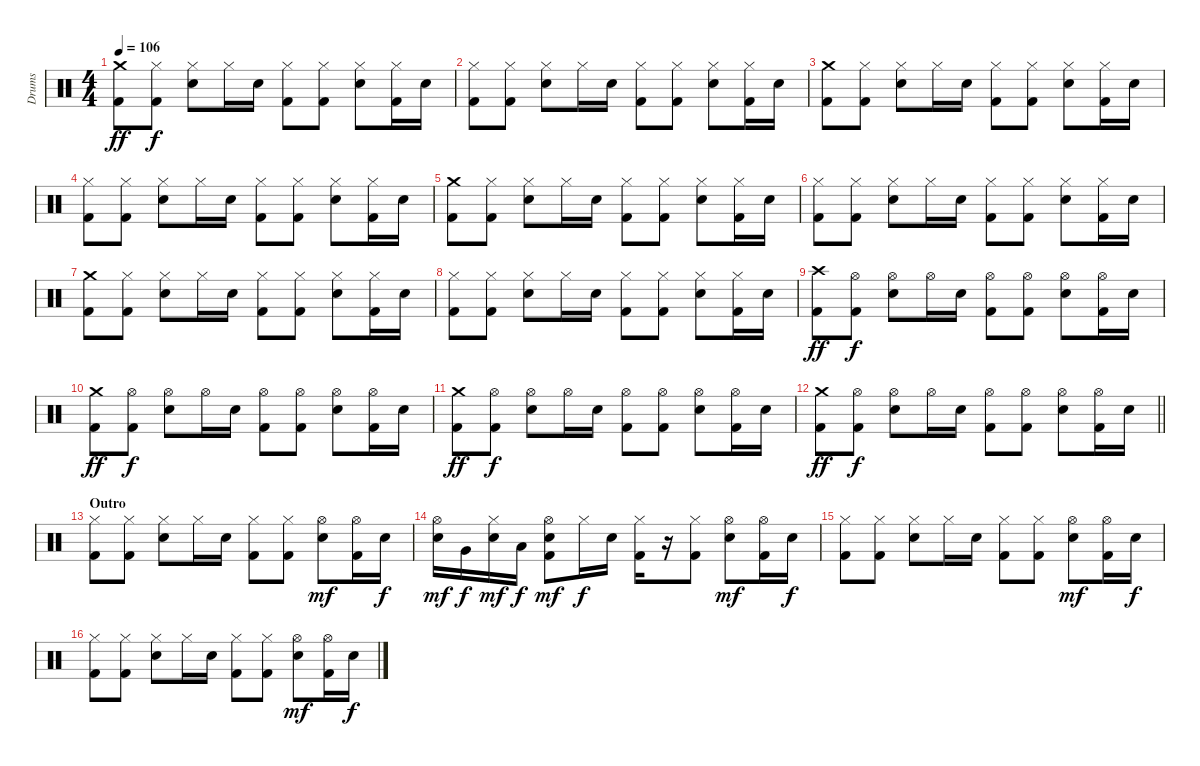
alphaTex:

\track ("Drums" "Drums") {instrument percussion}
\staff {score}
\articulation defaults
\ts (4 4)
\tempo 106
\clef neutral
\ks c
("Crash medium (hit)" "Kick (hit) 2").8{dy ff} ("Hi-Hat (closed)" "Kick (hit) 2").8{dy f} ("Hi-Hat (closed)" "Electric Snare (hit)").8 "Hi-Hat (closed)".16 "Electric Snare (hit)".16 ("Hi-Hat (closed)" "Kick (hit) 2").8 ("Hi-Hat (closed)" "Kick (hit) 2").8 ("Hi-Hat (closed)" "Electric Snare (hit)").8 ("Hi-Hat (closed)" "Kick (hit) 2").16 "Electric Snare (hit)".16 |
("Hi-Hat (closed)" "Kick (hit) 2").8 ("Hi-Hat (closed)" "Kick (hit) 2").8 ("Hi-Hat (closed)" "Electric Snare (hit)").8 "Hi-Hat (closed)".16 "Electric Snare (hit)".16 ("Hi-Hat (closed)" "Kick (hit) 2").8 ("Hi-Hat (closed)" "Kick (hit) 2").8 ("Hi-Hat (closed)" "Electric Snare (hit)").8 ("Hi-Hat (closed)" "Kick (hit) 2").16 "Electric Snare (hit)".16 |
("Crash medium (hit)" "Kick (hit) 2").8 ("Hi-Hat (closed)" "Kick (hit) 2").8 ("Hi-Hat (closed)" "Electric Snare (hit)").8 "Hi-Hat (closed)".16 "Electric Snare (hit)".16 ("Hi-Hat (closed)" "Kick (hit) 2").8 ("Hi-Hat (closed)" "Kick (hit) 2").8 ("Hi-Hat (closed)" "Electric Snare (hit)").8 ("Hi-Hat (closed)" "Kick (hit) 2").16 "Electric Snare (hit)".16 |
("Hi-Hat (closed)" "Kick (hit) 2").8 ("Hi-Hat (closed)" "Kick (hit) 2").8 ("Hi-Hat (closed)" "Electric Snare (hit)").8 "Hi-Hat (closed)".16 "Electric Snare (hit)".16 ("Hi-Hat (closed)" "Kick (hit) 2").8 ("Hi-Hat (closed)" "Kick (hit) 2").8 ("Hi-Hat (closed)" "Electric Snare (hit)").8 ("Hi-Hat (closed)" "Kick (hit) 2").16 "Electric Snare (hit)".16 |
("Crash medium (hit)" "Kick (hit) 2").8 ("Hi-Hat (closed)" "Kick (hit) 2").8 ("Hi-Hat (closed)" "Electric Snare (hit)").8 "Hi-Hat (closed)".16 "Electric Snare (hit)".16 ("Hi-Hat (closed)" "Kick (hit) 2").8 ("Hi-Hat (closed)" "Kick (hit) 2").8 ("Hi-Hat (closed)" "Electric Snare (hit)").8 ("Hi-Hat (closed)" "Kick (hit) 2").16 "Electric Snare (hit)".16 |
("Hi-Hat (closed)" "Kick (hit) 2").8 ("Hi-Hat (closed)" "Kick (hit) 2").8 ("Hi-Hat (closed)" "Electric Snare (hit)").8 "Hi-Hat (closed)".16 "Electric Snare (hit)".16 ("Hi-Hat (closed)" "Kick (hit) 2").8 ("Hi-Hat (closed)" "Kick (hit) 2").8 ("Hi-Hat (closed)" "Electric Snare (hit)").8 ("Hi-Hat (closed)" "Kick (hit) 2").16 "Electric Snare (hit)".16 |
("Crash medium (hit)" "Kick (hit) 2").8 ("Hi-Hat (closed)" "Kick (hit) 2").8 ("Hi-Hat (closed)" "Electric Snare (hit)").8 "Hi-Hat (closed)".16 "Electric Snare (hit)".16 ("Hi-Hat (closed)" "Kick (hit) 2").8 ("Hi-Hat (closed)" "Kick (hit) 2").8 ("Hi-Hat (closed)" "Electric Snare (hit)").8 ("Hi-Hat (closed)" "Kick (hit) 2").16 "Electric Snare (hit)".16 |
("Hi-Hat (closed)" "Kick (hit) 2").8 ("Hi-Hat (closed)" "Kick (hit) 2").8 ("Hi-Hat (closed)" "Electric Snare (hit)").8 "Hi-Hat (closed)".16 "Electric Snare (hit)".16 ("Hi-Hat (closed)" "Kick (hit) 2").8 ("Hi-Hat (closed)" "Kick (hit) 2").8 ("Hi-Hat (closed)" "Electric Snare (hit)").8 ("Hi-Hat (closed)" "Kick (hit) 2").16 "Electric Snare (hit)".16 |
("Crash high (hit)" "Kick (hit) 2").8{dy ff} ("Hi-Hat (open)" "Kick (hit) 2").8{dy f} ("Hi-Hat (open)" "Electric Snare (hit)").8 "Hi-Hat (open)".16 "Electric Snare (hit)".16 ("Hi-Hat (open)" "Kick (hit) 2").8 ("Hi-Hat (open)" "Kick (hit) 2").8 ("Hi-Hat (open)" "Electric Snare (hit)").8 ("Hi-Hat (open)" "Kick (hit) 2").16 "Electric Snare (hit)".16 |
("Crash medium (hit)" "Kick (hit) 2").8{dy ff} ("Hi-Hat (open)" "Kick (hit) 2").8{dy f} ("Hi-Hat (open)" "Electric Snare (hit)").8 "Hi-Hat (open)".16 "Electric Snare (hit)".16 ("Hi-Hat (open)" "Kick (hit) 2").8 ("Hi-Hat (open)" "Kick (hit) 2").8 ("Hi-Hat (open)" "Electric Snare (hit)").8 ("Hi-Hat (open)" "Kick (hit) 2").16 "Electric Snare (hit)".16 |
("Crash medium (hit)" "Kick (hit) 2").8{dy ff} ("Hi-Hat (open)" "Kick (hit) 2").8{dy f} ("Hi-Hat (open)" "Electric Snare (hit)").8 "Hi-Hat (open)".16 "Electric Snare (hit)".16 ("Hi-Hat (open)" "Kick (hit) 2").8 ("Hi-Hat (open)" "Kick (hit) 2").8 ("Hi-Hat (open)" "Electric Snare (hit)").8 ("Hi-Hat (open)" "Kick (hit) 2").16 "Electric Snare (hit)".16 |
\barLineRight lightlight
("Crash medium (hit)" "Kick (hit) 2").8{dy ff} ("Hi-Hat (open)" "Kick (hit) 2").8{dy f} ("Hi-Hat (open)" "Electric Snare (hit)").8 "Hi-Hat (open)".16 "Electric Snare (hit)".16 ("Hi-Hat (open)" "Kick (hit) 2").8 ("Hi-Hat (open)" "Kick (hit) 2").8 ("Hi-Hat (open)" "Electric Snare (hit)").8 ("Hi-Hat (open)" "Kick (hit) 2").16 "Electric Snare (hit)".16 |
\section ("" "Outro")
("Hi-Hat (closed)" "Kick (hit) 2").8 ("Hi-Hat (closed)" "Kick (hit) 2").8 ("Hi-Hat (closed)" "Electric Snare (hit)").8 "Hi-Hat (closed)".16 "Electric Snare (hit)".16 ("Hi-Hat (closed)" "Kick (hit) 2").8 ("Hi-Hat (closed)" "Kick (hit) 2").8 ("Hi-Hat (open)" "Electric Snare (hit)").8{dy mf} ("Hi-Hat (open)" "Kick (hit) 2").16 "Electric Snare (hit)".16{dy f} |
("Hi-Hat (open)" "Electric Snare (hit)").16{dy mf} "Very Low Tom (hit)".16{dy f} ("Hi-Hat (closed)" "Electric Snare (hit)").16{dy mf} "Low Tom (hit)".16{dy f} ("Hi-Hat (open)" "Electric Snare (hit)" "Kick (hit) 2").8{dy mf} "Hi-Hat (closed)".16{dy f} "Electric Snare (hit)".16 ("Hi-Hat (closed)" "Kick (hit) 2").16 r.16 ("Hi-Hat (closed)" "Kick (hit) 2").8 ("Hi-Hat (open)" "Electric Snare (hit)").8{dy mf} ("Hi-Hat (open)" "Kick (hit) 2").16 "Electric Snare (hit)".16{dy f} |
("Hi-Hat (closed)" "Kick (hit) 2").8 ("Hi-Hat (closed)" "Kick (hit) 2").8 ("Hi-Hat (closed)" "Electric Snare (hit)").8 "Hi-Hat (closed)".16 "Electric Snare (hit)".16 ("Hi-Hat (closed)" "Kick (hit) 2").8 ("Hi-Hat (closed)" "Kick (hit) 2").8 ("Hi-Hat (open)" "Electric Snare (hit)").8{dy mf} ("Hi-Hat (open)" "Kick (hit) 2").16 "Electric Snare (hit)".16{dy f} |
("Hi-Hat (closed)" "Kick (hit) 2").8 ("Hi-Hat (closed)" "Kick (hit) 2").8 ("Hi-Hat (closed)" "Electric Snare (hit)").8 "Hi-Hat (closed)".16 "Electric Snare (hit)".16 ("Hi-Hat (closed)" "Kick (hit) 2").8 ("Hi-Hat (closed)" "Kick (hit) 2").8 ("Hi-Hat (open)" "Electric Snare (hit)").8{dy mf} ("Hi-Hat (open)" "Kick (hit) 2").16 "Electric Snare (hit)".16{dy f}
